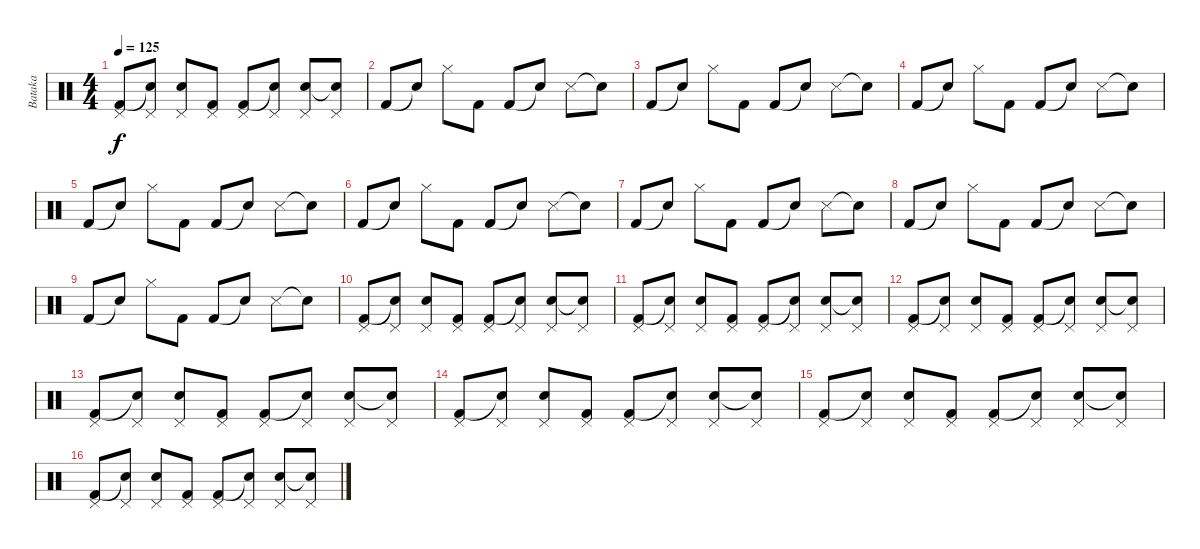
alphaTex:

\track ("Bataka" "Bataka") {instrument percussion}
\staff {score}
\articulation defaults
\ts (4 4)
\tempo 125
\clef neutral
\ks c
("Pedal Hi-Hat (hit)" "Kick (hit) 2").8{dy f} ("Pedal Hi-Hat (hit)" "Snare (hit)"{t}).8 ("Pedal Hi-Hat (hit)" "Electric Snare (hit)").8 ("Pedal Hi-Hat (hit)" "Kick (hit) 2").8 ("Pedal Hi-Hat (hit)" "Kick (hit) 2").8 ("Pedal Hi-Hat (hit)" "Snare (hit)"{t}).8 ("Pedal Hi-Hat (hit)" "Electric Snare (hit)").8 ("Pedal Hi-Hat (hit)" "Snare (hit)"{t}).8 |
"Kick (hit) 2".8 "Snare (hit)"{t}.8 "Hi-Hat (closed)".8 "Kick (hit) 2".8 "Kick (hit) 2".8 "Snare (hit)"{t}.8 "Snare (side stick) 3".8 "Snare (hit)"{t}.8 |
"Kick (hit) 2".8 "Snare (hit)"{t}.8 "Hi-Hat (closed)".8 "Kick (hit) 2".8 "Kick (hit) 2".8 "Snare (hit)"{t}.8 "Snare (side stick) 3".8 "Snare (hit)"{t}.8 |
"Kick (hit) 2".8 "Snare (hit)"{t}.8 "Hi-Hat (closed)".8 "Kick (hit) 2".8 "Kick (hit) 2".8 "Snare (hit)"{t}.8 "Snare (side stick) 3".8 "Snare (hit)"{t}.8 |
"Kick (hit) 2".8 "Snare (hit)"{t}.8 "Hi-Hat (closed)".8 "Kick (hit) 2".8 "Kick (hit) 2".8 "Snare (hit)"{t}.8 "Snare (side stick) 3".8 "Snare (hit)"{t}.8 |
"Kick (hit) 2".8 "Snare (hit)"{t}.8 "Hi-Hat (closed)".8 "Kick (hit) 2".8 "Kick (hit) 2".8 "Snare (hit)"{t}.8 "Snare (side stick) 3".8 "Snare (hit)"{t}.8 |
"Kick (hit) 2".8 "Snare (hit)"{t}.8 "Hi-Hat (closed)".8 "Kick (hit) 2".8 "Kick (hit) 2".8 "Snare (hit)"{t}.8 "Snare (side stick) 3".8 "Snare (hit)"{t}.8 |
"Kick (hit) 2".8 "Snare (hit)"{t}.8 "Hi-Hat (closed)".8 "Kick (hit) 2".8 "Kick (hit) 2".8 "Snare (hit)"{t}.8 "Snare (side stick) 3".8 "Snare (hit)"{t}.8 |
"Kick (hit) 2".8 "Snare (hit)"{t}.8 "Hi-Hat (closed)".8 "Kick (hit) 2".8 "Kick (hit) 2".8 "Snare (hit)"{t}.8 "Snare (side stick) 3".8 "Snare (hit)"{t}.8 |
("Pedal Hi-Hat (hit)" "Kick (hit) 2").8 ("Pedal Hi-Hat (hit)" "Snare (hit)"{t}).8 ("Pedal Hi-Hat (hit)" "Electric Snare (hit)").8 ("Pedal Hi-Hat (hit)" "Kick (hit) 2").8 ("Pedal Hi-Hat (hit)" "Kick (hit) 2").8 ("Pedal Hi-Hat (hit)" "Snare (hit)"{t}).8 ("Pedal Hi-Hat (hit)" "Electric Snare (hit)").8 ("Pedal Hi-Hat (hit)" "Snare (hit)"{t}).8 |
("Pedal Hi-Hat (hit)" "Kick (hit) 2").8 ("Pedal Hi-Hat (hit)" "Snare (hit)"{t}).8 ("Pedal Hi-Hat (hit)" "Electric Snare (hit)").8 ("Pedal Hi-Hat (hit)" "Kick (hit) 2").8 ("Pedal Hi-Hat (hit)" "Kick (hit) 2").8 ("Pedal Hi-Hat (hit)" "Snare (hit)"{t}).8 ("Pedal Hi-Hat (hit)" "Electric Snare (hit)").8 ("Pedal Hi-Hat (hit)" "Snare (hit)"{t}).8 |
("Pedal Hi-Hat (hit)" "Kick (hit) 2").8 ("Pedal Hi-Hat (hit)" "Snare (hit)"{t}).8 ("Pedal Hi-Hat (hit)" "Electric Snare (hit)").8 ("Pedal Hi-Hat (hit)" "Kick (hit) 2").8 ("Pedal Hi-Hat (hit)" "Kick (hit) 2").8 ("Pedal Hi-Hat (hit)" "Snare (hit)"{t}).8 ("Pedal Hi-Hat (hit)" "Electric Snare (hit)").8 ("Pedal Hi-Hat (hit)" "Snare (hit)"{t}).8 |
("Pedal Hi-Hat (hit)" "Kick (hit) 2").8 ("Pedal Hi-Hat (hit)" "Snare (hit)"{t}).8 ("Pedal Hi-Hat (hit)" "Electric Snare (hit)").8 ("Pedal Hi-Hat (hit)" "Kick (hit) 2").8 ("Pedal Hi-Hat (hit)" "Kick (hit) 2").8 ("Pedal Hi-Hat (hit)" "Snare (hit)"{t}).8 ("Pedal Hi-Hat (hit)" "Electric Snare (hit)").8 ("Pedal Hi-Hat (hit)" "Snare (hit)"{t}).8 |
("Pedal Hi-Hat (hit)" "Kick (hit) 2").8 ("Pedal Hi-Hat (hit)" "Snare (hit)"{t}).8 ("Pedal Hi-Hat (hit)" "Electric Snare (hit)").8 ("Pedal Hi-Hat (hit)" "Kick (hit) 2").8 ("Pedal Hi-Hat (hit)" "Kick (hit) 2").8 ("Pedal Hi-Hat (hit)" "Snare (hit)"{t}).8 ("Pedal Hi-Hat (hit)" "Electric Snare (hit)").8 ("Pedal Hi-Hat (hit)" "Snare (hit)"{t}).8 |
("Pedal Hi-Hat (hit)" "Kick (hit) 2").8 ("Pedal Hi-Hat (hit)" "Snare (hit)"{t}).8 ("Pedal Hi-Hat (hit)" "Electric Snare (hit)").8 ("Pedal Hi-Hat (hit)" "Kick (hit) 2").8 ("Pedal Hi-Hat (hit)" "Kick (hit) 2").8 ("Pedal Hi-Hat (hit)" "Snare (hit)"{t}).8 ("Pedal Hi-Hat (hit)" "Electric Snare (hit)").8 ("Pedal Hi-Hat (hit)" "Snare (hit)"{t}).8 |
("Pedal Hi-Hat (hit)" "Kick (hit) 2").8 ("Pedal Hi-Hat (hit)" "Snare (hit)"{t}).8 ("Pedal Hi-Hat (hit)" "Electric Snare (hit)").8 ("Pedal Hi-Hat (hit)" "Kick (hit) 2").8 ("Pedal Hi-Hat (hit)" "Kick (hit) 2").8 ("Pedal Hi-Hat (hit)" "Snare (hit)"{t}).8 ("Pedal Hi-Hat (hit)" "Electric Snare (hit)").8 ("Pedal Hi-Hat (hit)" "Snare (hit)"{t}).8
